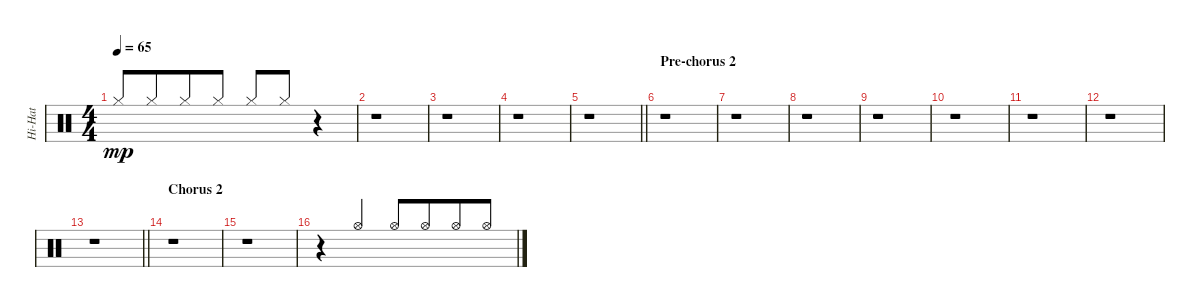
\track ("Hi-Hat" "Hi-Hat") {instrument percussion}
\staff {score}
\articulation defaults
\ts (4 4)
\tempo 65
\clef neutral
\ks c "Hi-Hat (closed)".8{dy mp beam Up} "Hi-Hat (closed)".8{beam Up beam merge} "Hi-Hat (closed)".8{beam Up} "Hi-Hat (closed)".8{beam Up} "Hi-Hat (closed)".8{beam Up} "Hi-Hat (closed)".8{beam Up}
r.4 |
r.1 |
r.1 |
r.1 |
\barLineRight lightlight
r.1 |
\section ("" "Pre-chorus 2")
r.1 |
r.1 |
r.1 |
r.1 |
r.1 |
r.1 |
r.1 |
\barLineRight lightlight
r.1 |
\section ("" "Chorus 2")
r.1 |
r.1 |
r.4{beam merge} "Hi-Hat (open)".4{beam Up} "Hi-Hat (open)".8{beam Up} "Hi-Hat (open)".8{beam Up beam merge} "Hi-Hat (open)".8{beam Up} "Hi-Hat (open)".8{beam Up}
